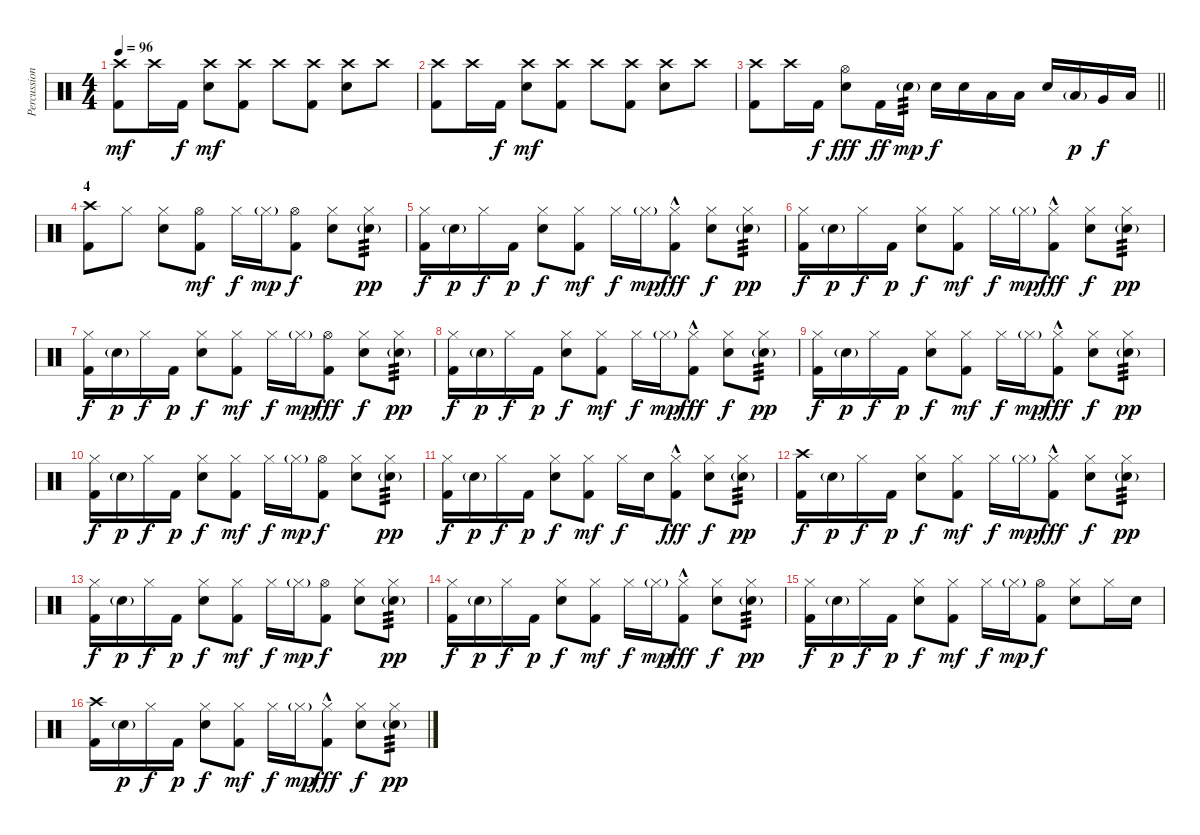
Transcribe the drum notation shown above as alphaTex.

\track ("Percussion" "Percussion") {instrument percussion}
\staff {score}
\articulation defaults
\ts (4 4)
\tempo 96
\clef neutral
\ks c
("Crash high (hit)" "Kick (hit) 2").8{dy mf} "Crash high (hit)".16 "Kick (hit) 2".16{dy f} ("Crash high (hit)" "Snare (hit) 2").8{dy mf} ("Crash high (hit)" "Kick (hit) 2").8 "Crash high (hit)".8 ("Crash high (hit)" "Kick (hit) 2").8 ("Crash high (hit)" "Snare (hit) 2").8 "Crash high (hit)".8 |
("Crash high (hit)" "Kick (hit) 2").8 "Crash high (hit)".16 "Kick (hit) 2".16{dy f} ("Crash high (hit)" "Snare (hit) 2").8{dy mf} ("Crash high (hit)" "Kick (hit) 2").8 "Crash high (hit)".8 ("Crash high (hit)" "Kick (hit) 2").8 ("Crash high (hit)" "Snare (hit) 2").8 "Crash high (hit)".8 |
\barLineRight lightlight
("Crash high (hit)" "Kick (hit) 2").8 "Crash high (hit)".16 "Kick (hit) 2".16{dy f} ("Hi-Hat (open)" "Snare (hit) 2").8{dy fff} "Kick (hit) 2".16{dy ff} "Snare (hit) 2"{g}.16{tp 3 dy mp} "Snare (hit) 2".16{dy f} "Snare (hit) 2".16 "Low Tom (hit)".16 "Low Tom (hit)".16 "Snare (hit) 2".16 "Low Tom (hit)"{g}.16{dy p} "Very Low Tom (hit)".16{dy f} "Low Floor Tom (hit)".16 |
\section ("" "4")
("Crash high (hit)" "Kick (hit) 2").8 "Hi-Hat (closed)".8 ("Hi-Hat (closed)" "Snare (hit) 2").8 ("Hi-Hat (open)" "Kick (hit) 2").8{dy mf} "Hi-Hat (closed)".16{dy f} "Hi-Hat (closed)"{g}.16{dy mp} ("Hi-Hat (open)" "Kick (hit) 2").8{dy f} ("Hi-Hat (closed)" "Snare (hit) 2").8 ("Hi-Hat (closed)" "Snare (hit) 2"{g}).8{tp 3 dy pp} |
("Hi-Hat (closed)" "Kick (hit) 2").16{dy f} "Snare (hit) 2"{g}.16{dy p} "Hi-Hat (closed)".16{dy f} "Kick (hit) 2".16{dy p} ("Hi-Hat (closed)" "Snare (hit) 2").8{dy f} ("Hi-Hat (closed)" "Kick (hit) 2").8{dy mf} "Hi-Hat (closed)".16{dy f} "Hi-Hat (closed)"{g}.16{dy mp} ("Hi-Hat (closed)"{hac} "Kick (hit) 2").8{dy fff} ("Hi-Hat (closed)" "Snare (hit) 2").8{dy f} ("Hi-Hat (closed)" "Snare (hit) 2"{g}).8{tp 3 dy pp} |
("Hi-Hat (closed)" "Kick (hit) 2").16{dy f} "Snare (hit) 2"{g}.16{dy p} "Hi-Hat (closed)".16{dy f} "Kick (hit) 2".16{dy p} ("Hi-Hat (closed)" "Snare (hit) 2").8{dy f} ("Hi-Hat (closed)" "Kick (hit) 2").8{dy mf} "Hi-Hat (closed)".16{dy f} "Hi-Hat (closed)"{g}.16{dy mp} ("Hi-Hat (closed)"{hac} "Kick (hit) 2").8{dy fff} ("Hi-Hat (closed)" "Snare (hit) 2").8{dy f} ("Hi-Hat (closed)" "Snare (hit) 2"{g}).8{tp 3 dy pp} |
("Hi-Hat (closed)" "Kick (hit) 2").16{dy f} "Snare (hit) 2"{g}.16{dy p} "Hi-Hat (closed)".16{dy f} "Kick (hit) 2".16{dy p} ("Hi-Hat (closed)" "Snare (hit) 2").8{dy f} ("Hi-Hat (closed)" "Kick (hit) 2").8{dy mf} "Hi-Hat (closed)".16{dy f} "Hi-Hat (closed)"{g}.16{dy mp} ("Hi-Hat (open)" "Kick (hit) 2").8{dy fff} ("Hi-Hat (closed)" "Snare (hit) 2").8{dy f} ("Hi-Hat (closed)" "Snare (hit) 2"{g}).8{tp 3 dy pp} |
("Hi-Hat (closed)" "Kick (hit) 2").16{dy f} "Snare (hit) 2"{g}.16{dy p} "Hi-Hat (closed)".16{dy f} "Kick (hit) 2".16{dy p} ("Hi-Hat (closed)" "Snare (hit) 2").8{dy f} ("Hi-Hat (closed)" "Kick (hit) 2").8{dy mf} "Hi-Hat (closed)".16{dy f} "Hi-Hat (closed)"{g}.16{dy mp} ("Hi-Hat (closed)"{hac} "Kick (hit) 2").8{dy fff} ("Hi-Hat (closed)" "Snare (hit) 2").8{dy f} ("Hi-Hat (closed)" "Snare (hit) 2"{g}).8{tp 3 dy pp} |
("Hi-Hat (closed)" "Kick (hit) 2").16{dy f} "Snare (hit) 2"{g}.16{dy p} "Hi-Hat (closed)".16{dy f} "Kick (hit) 2".16{dy p} ("Hi-Hat (closed)" "Snare (hit) 2").8{dy f} ("Hi-Hat (closed)" "Kick (hit) 2").8{dy mf} "Hi-Hat (closed)".16{dy f} "Hi-Hat (closed)"{g}.16{dy mp} ("Hi-Hat (closed)"{hac} "Kick (hit) 2").8{dy fff} ("Hi-Hat (closed)" "Snare (hit) 2").8{dy f} ("Hi-Hat (closed)" "Snare (hit) 2"{g}).8{tp 3 dy pp} |
("Hi-Hat (closed)" "Kick (hit) 2").16{dy f} "Snare (hit) 2"{g}.16{dy p} "Hi-Hat (closed)".16{dy f} "Kick (hit) 2".16{dy p} ("Hi-Hat (closed)" "Snare (hit) 2").8{dy f} ("Hi-Hat (closed)" "Kick (hit) 2").8{dy mf} "Hi-Hat (closed)".16{dy f} "Hi-Hat (closed)"{g}.16{dy mp} ("Hi-Hat (open)" "Kick (hit) 2").8{dy f} ("Hi-Hat (closed)" "Snare (hit) 2").8 ("Hi-Hat (closed)" "Snare (hit) 2"{g}).8{tp 3 dy pp} |
("Hi-Hat (closed)" "Kick (hit) 2").16{dy f} "Snare (hit) 2"{g}.16{dy p} "Hi-Hat (closed)".16{dy f} "Kick (hit) 2".16{dy p} ("Hi-Hat (closed)" "Snare (hit) 2").8{dy f} ("Hi-Hat (closed)" "Kick (hit) 2").8{dy mf} "Hi-Hat (closed)".16{dy f} "Snare (hit) 2".16 ("Hi-Hat (closed)"{hac} "Kick (hit) 2").8{dy fff} ("Hi-Hat (closed)" "Snare (hit) 2").8{dy f} ("Hi-Hat (closed)" "Snare (hit) 2"{g}).8{tp 3 dy pp} |
("Crash high (hit)" "Kick (hit) 2").16{dy f} "Snare (hit) 2"{g}.16{dy p} "Hi-Hat (closed)".16{dy f} "Kick (hit) 2".16{dy p} ("Hi-Hat (closed)" "Snare (hit) 2").8{dy f} ("Hi-Hat (closed)" "Kick (hit) 2").8{dy mf} "Hi-Hat (closed)".16{dy f} "Hi-Hat (closed)"{g}.16{dy mp} ("Hi-Hat (closed)"{hac} "Kick (hit) 2").8{dy fff} ("Hi-Hat (closed)" "Snare (hit) 2").8{dy f} ("Hi-Hat (closed)" "Snare (hit) 2"{g}).8{tp 3 dy pp} |
("Hi-Hat (closed)" "Kick (hit) 2").16{dy f} "Snare (hit) 2"{g}.16{dy p} "Hi-Hat (closed)".16{dy f} "Kick (hit) 2".16{dy p} ("Hi-Hat (closed)" "Snare (hit) 2").8{dy f} ("Hi-Hat (closed)" "Kick (hit) 2").8{dy mf} "Hi-Hat (closed)".16{dy f} "Hi-Hat (closed)"{g}.16{dy mp} ("Hi-Hat (open)" "Kick (hit) 2").8{dy f} ("Hi-Hat (closed)" "Snare (hit) 2").8 ("Hi-Hat (closed)" "Snare (hit) 2"{g}).8{tp 3 dy pp} |
("Hi-Hat (closed)" "Kick (hit) 2").16{dy f} "Snare (hit) 2"{g}.16{dy p} "Hi-Hat (closed)".16{dy f} "Kick (hit) 2".16{dy p} ("Hi-Hat (closed)" "Snare (hit) 2").8{dy f} ("Hi-Hat (closed)" "Kick (hit) 2").8{dy mf} "Hi-Hat (closed)".16{dy f} "Hi-Hat (closed)"{g}.16{dy mp} ("Hi-Hat (closed)"{hac} "Kick (hit) 2").8{dy fff} ("Hi-Hat (closed)" "Snare (hit) 2").8{dy f} ("Hi-Hat (closed)" "Snare (hit) 2"{g}).8{tp 3 dy pp} |
("Hi-Hat (closed)" "Kick (hit) 2").16{dy f} "Snare (hit) 2"{g}.16{dy p} "Hi-Hat (closed)".16{dy f} "Kick (hit) 2".16{dy p} ("Hi-Hat (closed)" "Snare (hit) 2").8{dy f} ("Hi-Hat (closed)" "Kick (hit) 2").8{dy mf} "Hi-Hat (closed)".16{dy f} "Hi-Hat (closed)"{g}.16{dy mp} ("Hi-Hat (open)" "Kick (hit) 2").8{dy f} ("Hi-Hat (closed)" "Snare (hit) 2").8 "Hi-Hat (closed)".16 "Snare (hit) 2".16 |
("Crash high (hit)" "Kick (hit) 2").16 "Snare (hit) 2"{g}.16{dy p} "Hi-Hat (closed)".16{dy f} "Kick (hit) 2".16{dy p} ("Hi-Hat (closed)" "Snare (hit) 2").8{dy f} ("Hi-Hat (closed)" "Kick (hit) 2").8{dy mf} "Hi-Hat (closed)".16{dy f} "Hi-Hat (closed)"{g}.16{dy mp} ("Hi-Hat (closed)"{hac} "Kick (hit) 2").8{dy fff} ("Hi-Hat (closed)" "Snare (hit) 2").8{dy f} ("Hi-Hat (closed)" "Snare (hit) 2"{g}).8{tp 3 dy pp}
